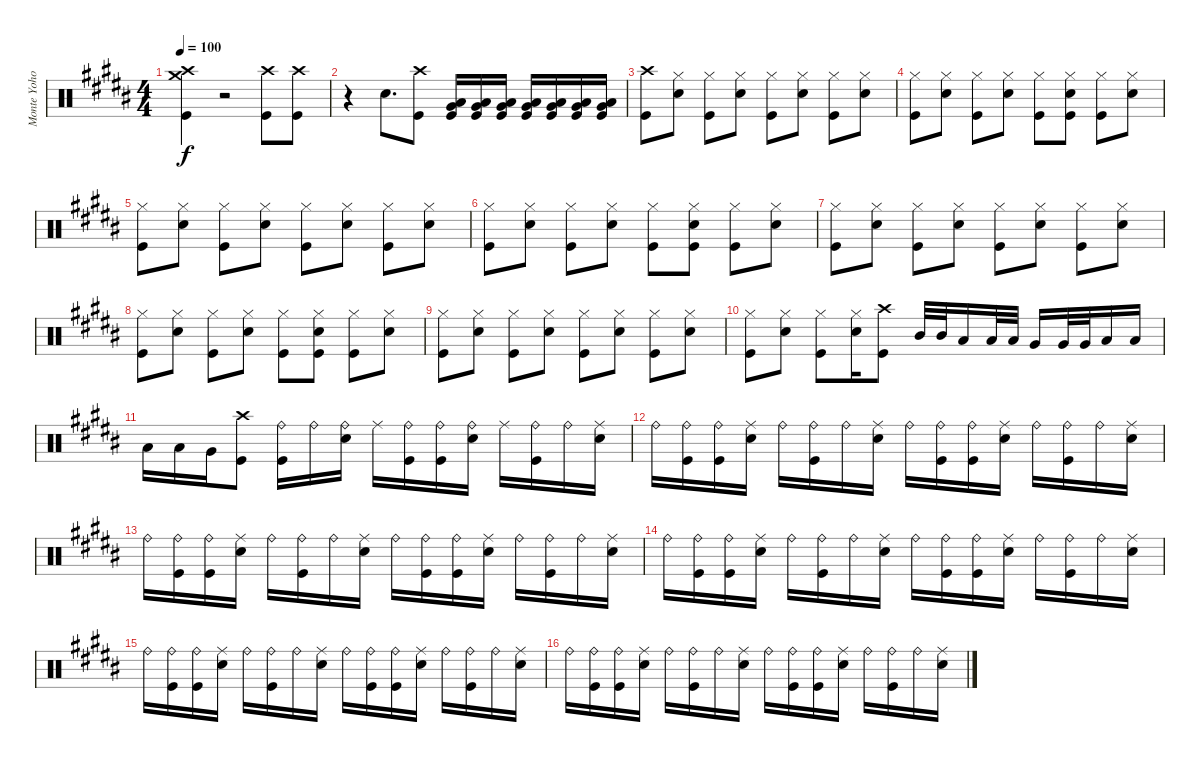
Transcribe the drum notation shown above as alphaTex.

\track ("Monte Yoho Drums" "Monte Yoho") {instrument percussion}
\staff {score}
\articulation defaults
\ts (4 4)
\tempo 100
\clef neutral
\ks g#minor
("Crash high (hit)" "Crash medium (hit)" "Kick (hit)").4{dy f volume 13} r.2 ("Crash high (hit)" "Kick (hit)").8 ("Crash high (hit)" "Kick (hit)").8 |
r.4 "Snare (hit) 2".8{d} ("Crash high (hit)" "Kick (hit)").8 ("Very Low Tom (hit)" "Low Floor Tom (hit)" "Kick (hit)").16 ("Very Low Tom (hit)" "Low Floor Tom (hit)" "Kick (hit)").16 ("Very Low Tom (hit)" "Low Floor Tom (hit)" "Kick (hit)").16 ("Very Low Tom (hit)" "Low Floor Tom (hit)" "Kick (hit)").16 ("Very Low Tom (hit)" "Low Floor Tom (hit)" "Kick (hit)").16 ("Very Low Tom (hit)" "Low Floor Tom (hit)" "Kick (hit)").16 ("Very Low Tom (hit)" "Low Floor Tom (hit)" "Kick (hit)").16 |
("Crash high (hit)" "Kick (hit)").8 ("Hi-Hat (closed)" "Snare (hit) 2").8 ("Hi-Hat (closed)" "Kick (hit)").8 ("Hi-Hat (closed)" "Snare (hit) 2").8 ("Hi-Hat (closed)" "Kick (hit)").8 ("Hi-Hat (closed)" "Snare (hit) 2").8 ("Hi-Hat (closed)" "Kick (hit)").8 ("Hi-Hat (closed)" "Snare (hit) 2").8 |
("Hi-Hat (closed)" "Kick (hit)").8 ("Hi-Hat (closed)" "Snare (hit) 2").8 ("Hi-Hat (closed)" "Kick (hit)").8 ("Hi-Hat (closed)" "Snare (hit) 2").8 ("Hi-Hat (closed)" "Kick (hit)").8 ("Hi-Hat (closed)" "Snare (hit) 2" "Kick (hit)").8 ("Hi-Hat (closed)" "Kick (hit)").8 ("Hi-Hat (closed)" "Snare (hit) 2").8 |
("Hi-Hat (closed)" "Kick (hit)").8 ("Hi-Hat (closed)" "Snare (hit) 2").8 ("Hi-Hat (closed)" "Kick (hit)").8 ("Hi-Hat (closed)" "Snare (hit) 2").8 ("Hi-Hat (closed)" "Kick (hit)").8 ("Hi-Hat (closed)" "Snare (hit) 2").8 ("Hi-Hat (closed)" "Kick (hit)").8 ("Hi-Hat (closed)" "Snare (hit) 2").8 |
("Hi-Hat (closed)" "Kick (hit)").8 ("Hi-Hat (closed)" "Snare (hit) 2").8 ("Hi-Hat (closed)" "Kick (hit)").8 ("Hi-Hat (closed)" "Snare (hit) 2").8 ("Hi-Hat (closed)" "Kick (hit)").8 ("Hi-Hat (closed)" "Snare (hit) 2" "Kick (hit)").8 ("Hi-Hat (closed)" "Kick (hit)").8 ("Hi-Hat (closed)" "Snare (hit) 2").8 |
("Hi-Hat (closed)" "Kick (hit)").8 ("Hi-Hat (closed)" "Snare (hit) 2").8 ("Hi-Hat (closed)" "Kick (hit)").8 ("Hi-Hat (closed)" "Snare (hit) 2").8 ("Hi-Hat (closed)" "Kick (hit)").8 ("Hi-Hat (closed)" "Snare (hit) 2").8 ("Hi-Hat (closed)" "Kick (hit)").8 ("Hi-Hat (closed)" "Snare (hit) 2").8 |
("Hi-Hat (closed)" "Kick (hit)").8 ("Hi-Hat (closed)" "Snare (hit) 2").8 ("Hi-Hat (closed)" "Kick (hit)").8 ("Hi-Hat (closed)" "Snare (hit) 2").8 ("Hi-Hat (closed)" "Kick (hit)").8 ("Hi-Hat (closed)" "Snare (hit) 2" "Kick (hit)").8 ("Hi-Hat (closed)" "Kick (hit)").8 ("Hi-Hat (closed)" "Snare (hit) 2").8 |
("Hi-Hat (closed)" "Kick (hit)").8 ("Hi-Hat (closed)" "Snare (hit) 2").8 ("Hi-Hat (closed)" "Kick (hit)").8 ("Hi-Hat (closed)" "Snare (hit) 2").8 ("Hi-Hat (closed)" "Kick (hit)").8 ("Hi-Hat (closed)" "Snare (hit) 2").8 ("Hi-Hat (closed)" "Kick (hit)").8 ("Hi-Hat (closed)" "Snare (hit) 2").8 |
("Hi-Hat (closed)" "Kick (hit)").8 ("Hi-Hat (closed)" "Snare (hit) 2").8 ("Hi-Hat (closed)" "Kick (hit)").8 ("Hi-Hat (closed)" "Snare (hit) 2").16 ("Crash high (hit)" "Kick (hit)").8 "Mid Tom (hit)".32 "Mid Tom (hit)".32 "Low Tom (hit)".16 "Low Tom (hit)".32 "Low Tom (hit)".32 "Very Low Tom (hit)".16 "Very Low Tom (hit)".32 "Very Low Tom (hit)".32 "Low Floor Tom (hit)".16 "Low Tom (hit)".16 |
"Low Tom (hit)".16 "Low Tom (hit)".16 "Very Low Tom (hit)".16 ("Crash high (hit)" "Kick (hit)").8 ("Ride (bell)" "Kick (hit)").16 "Ride (bell)".16 ("Ride (bell)" "Snare (hit) 2").16 "Ride (middle)".16 ("Ride (bell)" "Kick (hit)").16 ("Ride (bell)" "Kick (hit)").16 ("Ride (bell)" "Snare (hit) 2").16 "Ride (middle)".16 ("Ride (bell)" "Kick (hit)").16 "Ride (bell)".16 ("Ride (middle)" "Snare (hit) 2").16 |
"Ride (bell)".16 ("Ride (bell)" "Kick (hit)").16 ("Ride (bell)" "Kick (hit)").16 ("Ride (middle)" "Snare (hit) 2").16 "Ride (bell)".16 ("Ride (bell)" "Kick (hit)").16 "Ride (bell)".16 ("Ride (middle)" "Snare (hit) 2").16 "Ride (bell)".16 ("Ride (bell)" "Kick (hit)").16 ("Ride (bell)" "Kick (hit)").16 ("Ride (middle)" "Snare (hit) 2").16 "Ride (bell)".16 ("Ride (bell)" "Kick (hit)").16 "Ride (bell)".16 ("Ride (middle)" "Snare (hit) 2").16 |
"Ride (bell)".16 ("Ride (bell)" "Kick (hit)").16 ("Ride (bell)" "Kick (hit)").16 ("Ride (middle)" "Snare (hit) 2").16 "Ride (bell)".16 ("Ride (bell)" "Kick (hit)").16 "Ride (bell)".16 ("Ride (middle)" "Snare (hit) 2").16 "Ride (bell)".16 ("Ride (bell)" "Kick (hit)").16 ("Ride (bell)" "Kick (hit)").16 ("Ride (middle)" "Snare (hit) 2").16 "Ride (bell)".16 ("Ride (bell)" "Kick (hit)").16 "Ride (bell)".16 ("Ride (middle)" "Snare (hit) 2").16 |
"Ride (bell)".16 ("Ride (bell)" "Kick (hit)").16 ("Ride (bell)" "Kick (hit)").16 ("Ride (middle)" "Snare (hit) 2").16 "Ride (bell)".16 ("Ride (bell)" "Kick (hit)").16 "Ride (bell)".16 ("Ride (middle)" "Snare (hit) 2").16 "Ride (bell)".16 ("Ride (bell)" "Kick (hit)").16 ("Ride (bell)" "Kick (hit)").16 ("Ride (middle)" "Snare (hit) 2").16 "Ride (bell)".16 ("Ride (bell)" "Kick (hit)").16 "Ride (bell)".16 ("Ride (middle)" "Snare (hit) 2").16 |
"Ride (bell)".16 ("Ride (bell)" "Kick (hit)").16 ("Ride (bell)" "Kick (hit)").16 ("Ride (middle)" "Snare (hit) 2").16 "Ride (bell)".16 ("Ride (bell)" "Kick (hit)").16 "Ride (bell)".16 ("Ride (middle)" "Snare (hit) 2").16 "Ride (bell)".16 ("Ride (bell)" "Kick (hit)").16 ("Ride (bell)" "Kick (hit)").16 ("Ride (middle)" "Snare (hit) 2").16 "Ride (bell)".16 ("Ride (bell)" "Kick (hit)").16 "Ride (bell)".16 ("Ride (middle)" "Snare (hit) 2").16 |
"Ride (bell)".16 ("Ride (bell)" "Kick (hit)").16 ("Ride (bell)" "Kick (hit)").16 ("Ride (middle)" "Snare (hit) 2").16 "Ride (bell)".16 ("Ride (bell)" "Kick (hit)").16 "Ride (bell)".16 ("Ride (middle)" "Snare (hit) 2").16 "Ride (bell)".16 ("Ride (bell)" "Kick (hit)").16 ("Ride (bell)" "Kick (hit)").16 ("Ride (middle)" "Snare (hit) 2").16 "Ride (bell)".16 ("Ride (bell)" "Kick (hit)").16 "Ride (bell)".16 ("Ride (middle)" "Snare (hit) 2").16
